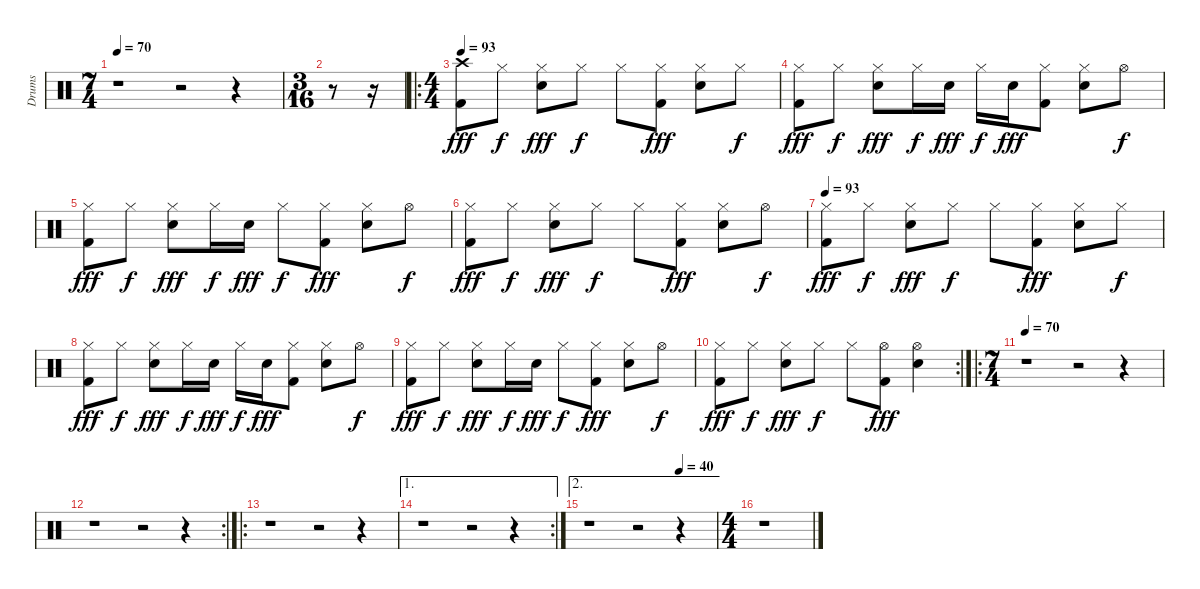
\track ("Drums" "Drums") {instrument percussion}
\staff {score}
\articulation defaults
\ts (7 4)
\tempo 70
\clef neutral
\ks c
r.1{dy fff} r.2 r.4 |
\ts (3 16)
r.8 r.16 |
\ro
\ts (4 4)
\tempo 93
("Crash high (hit)" "Kick (hit) 2").8 "Hi-Hat (closed)".8{dy f} ("Hi-Hat (closed)" "Electric Snare (hit)").8{dy fff} "Hi-Hat (closed)".8{dy f} "Hi-Hat (closed)".8 ("Hi-Hat (closed)" "Kick (hit) 2").8{dy fff} ("Hi-Hat (closed)" "Electric Snare (hit)").8 "Hi-Hat (closed)".8{dy f} |
("Hi-Hat (closed)" "Kick (hit) 2").8{dy fff} "Hi-Hat (closed)".8{dy f} ("Hi-Hat (closed)" "Electric Snare (hit)").8{dy fff} "Hi-Hat (closed)".16{dy f} "Electric Snare (hit)".16{dy fff} "Hi-Hat (closed)".16{dy f} "Electric Snare (hit)".16{dy fff} ("Hi-Hat (closed)" "Kick (hit) 2").8 ("Hi-Hat (closed)" "Electric Snare (hit)").8 "Hi-Hat (open)".8{dy f} |
("Hi-Hat (closed)" "Kick (hit) 2").8{dy fff} "Hi-Hat (closed)".8{dy f} ("Hi-Hat (closed)" "Electric Snare (hit)").8{dy fff} "Hi-Hat (closed)".16{dy f} "Electric Snare (hit)".16{dy fff} "Hi-Hat (closed)".8{dy f} ("Hi-Hat (closed)" "Kick (hit) 2").8{dy fff} ("Hi-Hat (closed)" "Electric Snare (hit)").8 "Hi-Hat (open)".8{dy f} |
("Hi-Hat (closed)" "Kick (hit) 2").8{dy fff} "Hi-Hat (closed)".8{dy f} ("Hi-Hat (closed)" "Electric Snare (hit)").8{dy fff} "Hi-Hat (closed)".8{dy f} "Hi-Hat (closed)".8 ("Hi-Hat (closed)" "Kick (hit) 2").8{dy fff} ("Hi-Hat (closed)" "Electric Snare (hit)").8 "Hi-Hat (open)".8{dy f} |
\tempo 93
("Hi-Hat (closed)" "Kick (hit) 2").8{dy fff} "Hi-Hat (closed)".8{dy f} ("Hi-Hat (closed)" "Electric Snare (hit)").8{dy fff} "Hi-Hat (closed)".8{dy f} "Hi-Hat (closed)".8 ("Hi-Hat (closed)" "Kick (hit) 2").8{dy fff} ("Hi-Hat (closed)" "Electric Snare (hit)").8 "Hi-Hat (closed)".8{dy f} |
("Hi-Hat (closed)" "Kick (hit) 2").8{dy fff} "Hi-Hat (closed)".8{dy f} ("Hi-Hat (closed)" "Electric Snare (hit)").8{dy fff} "Hi-Hat (closed)".16{dy f} "Electric Snare (hit)".16{dy fff} "Hi-Hat (closed)".16{dy f} "Electric Snare (hit)".16{dy fff} ("Hi-Hat (closed)" "Kick (hit) 2").8 ("Hi-Hat (closed)" "Electric Snare (hit)").8 "Hi-Hat (open)".8{dy f} |
("Hi-Hat (closed)" "Kick (hit) 2").8{dy fff} "Hi-Hat (closed)".8{dy f} ("Hi-Hat (closed)" "Electric Snare (hit)").8{dy fff} "Hi-Hat (closed)".16{dy f} "Electric Snare (hit)".16{dy fff} "Hi-Hat (closed)".8{dy f} ("Hi-Hat (closed)" "Kick (hit) 2").8{dy fff} ("Hi-Hat (closed)" "Electric Snare (hit)").8 "Hi-Hat (open)".8{dy f} |
\rc 2
("Hi-Hat (closed)" "Kick (hit) 2").8{dy fff} "Hi-Hat (closed)".8{dy f} ("Hi-Hat (closed)" "Electric Snare (hit)").8{dy fff} "Hi-Hat (closed)".8{dy f} "Hi-Hat (closed)".8 ("Hi-Hat (open)" "Kick (hit) 2").8{dy fff} ("Hi-Hat (open)" "Electric Snare (hit)").4 |
\ro
\ts (7 4)
\tempo 70
r.1 r.2 r.4 |
\rc 2
r.1 r.2 r.4 |
\ro
r.1 r.2 r.4 |
\ae 1
\rc 2
r.1 r.2 r.4 |
\ae 2
\tempo (40 0.7142857142857143)
r.1 r.2 r.4 |
\ts (4 4)
r.1
